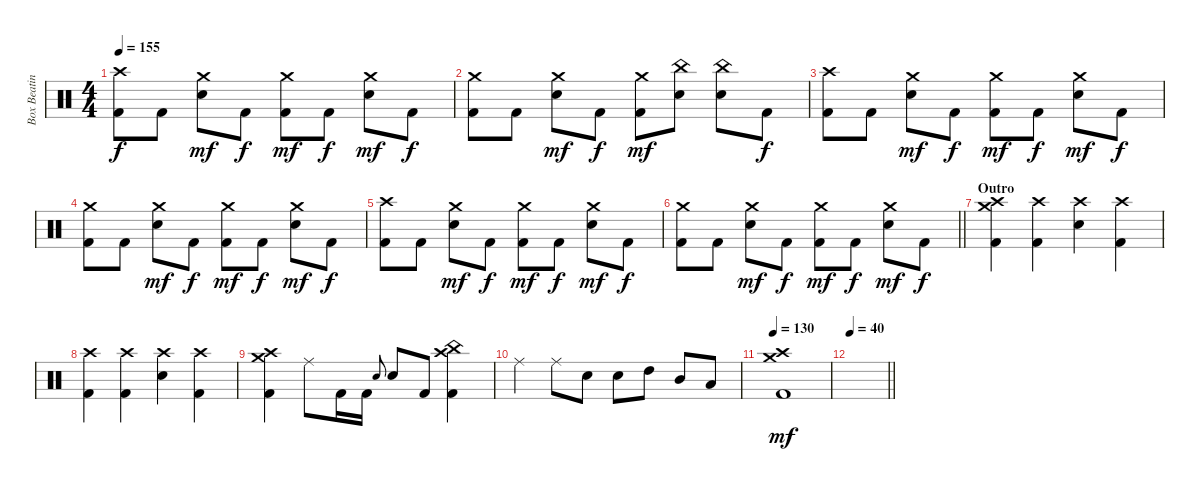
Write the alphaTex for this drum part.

\track ("Box Beating" "Box Beatin") {instrument percussion}
\staff {score}
\articulation defaults
\ts (4 4)
\tempo 155
\clef neutral
\ks c
("Crash high (hit)" "Kick (hit) 2").8{dy f} "Kick (hit) 2".8 ("Crash medium (hit)" "Electric Snare (hit)").8{dy mf} "Kick (hit) 2".8{dy f} ("Crash medium (hit)" "Kick (hit) 2").8{dy mf} "Kick (hit) 2".8{dy f} ("Crash medium (hit)" "Electric Snare (hit)").8{dy mf} "Kick (hit) 2".8{dy f} |
("Crash medium (hit)" "Kick (hit) 2").8 "Kick (hit) 2".8 ("Crash medium (hit)" "Electric Snare (hit)").8{dy mf} "Kick (hit) 2".8{dy f} ("Crash medium (hit)" "Kick (hit) 2").8{dy mf} ("China (hit)" "Electric Snare (hit)").8 ("China (hit)" "Electric Snare (hit)").8 "Kick (hit) 2".8{dy f} |
("Crash high (hit)" "Kick (hit) 2").8 "Kick (hit) 2".8 ("Crash medium (hit)" "Electric Snare (hit)").8{dy mf} "Kick (hit) 2".8{dy f} ("Crash medium (hit)" "Kick (hit) 2").8{dy mf} "Kick (hit) 2".8{dy f} ("Crash medium (hit)" "Electric Snare (hit)").8{dy mf} "Kick (hit) 2".8{dy f} |
("Crash medium (hit)" "Kick (hit) 2").8 "Kick (hit) 2".8 ("Crash medium (hit)" "Electric Snare (hit)").8{dy mf} "Kick (hit) 2".8{dy f} ("Crash medium (hit)" "Kick (hit) 2").8{dy mf} "Kick (hit) 2".8{dy f} ("Crash medium (hit)" "Electric Snare (hit)").8{dy mf} "Kick (hit) 2".8{dy f} |
("Crash high (hit)" "Kick (hit) 2").8 "Kick (hit) 2".8 ("Crash medium (hit)" "Electric Snare (hit)").8{dy mf} "Kick (hit) 2".8{dy f} ("Crash medium (hit)" "Kick (hit) 2").8{dy mf} "Kick (hit) 2".8{dy f} ("Crash medium (hit)" "Electric Snare (hit)").8{dy mf} "Kick (hit) 2".8{dy f} |
\barLineRight lightlight
("Crash medium (hit)" "Kick (hit) 2").8 "Kick (hit) 2".8 ("Crash medium (hit)" "Electric Snare (hit)").8{dy mf} "Kick (hit) 2".8{dy f} ("Crash medium (hit)" "Kick (hit) 2").8{dy mf} "Kick (hit) 2".8{dy f} ("Crash medium (hit)" "Electric Snare (hit)").8{dy mf} "Kick (hit) 2".8{dy f} |
\section ("" "Outro")
("Crash high (hit)" "Crash medium (hit)" "Kick (hit) 2").4 ("Crash high (hit)" "Kick (hit) 2").4 ("Crash high (hit)" "Electric Snare (hit)").4 ("Crash high (hit)" "Kick (hit) 2").4 |
("Crash high (hit)" "Kick (hit) 2").4 ("Crash high (hit)" "Kick (hit) 2").4 ("Crash high (hit)" "Electric Snare (hit)").4 ("Crash high (hit)" "Kick (hit) 2").4 |
("Crash high (hit)" "Crash medium (hit)" "Kick (hit) 2").4 "Ride (middle)".8 "Kick (hit) 2".16 "Kick (hit) 2".16 "Electric Snare (hit)".8{gr onbeat} "Electric Snare (hit)".8 "Kick (hit) 2".8 ("Crash high (hit)" "China (hit)" "Kick (hit) 2").4 |
"Ride (middle)".4 "Ride (middle)".8 "Electric Snare (hit)".8 "Electric Snare (hit)".8 "High Tom (hit)".8 "Mid Tom (hit)".8 "Low Tom (hit)".8 |
\tempo 130
("Crash medium (hit)" "Crash high (hit)" "Kick (hit) 2").1{dy mf} |
\tempo 40
\barLineRight lightlight
